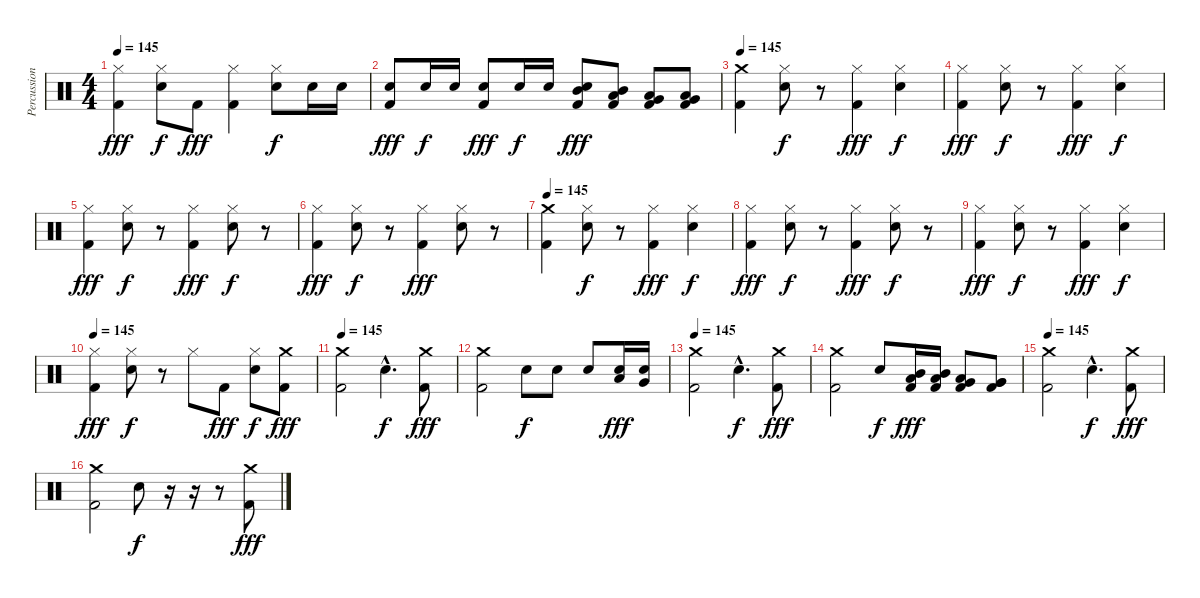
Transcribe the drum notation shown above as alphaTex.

\track ("Percussion" "Percussion") {instrument percussion}
\staff {score}
\articulation defaults
\ts (4 4)
\tempo 145
\clef neutral
\ks c
("Hi-Hat (closed)" "Kick (hit) 2").4{dy fff} ("Hi-Hat (closed)" "Snare (hit) 2").8{dy f} "Kick (hit) 2".8{dy fff} ("Hi-Hat (closed)" "Kick (hit) 2").4 ("Hi-Hat (closed)" "Snare (hit) 2").8{dy f} "Snare (hit) 2".16 "Snare (hit) 2".16 |
("Snare (hit) 2" "Kick (hit) 2").8{dy fff} "Snare (hit) 2".16{dy f} "Snare (hit) 2".16 ("Snare (hit) 2" "Kick (hit) 2").8{dy fff} "Snare (hit) 2".16{dy f} "Snare (hit) 2".16 ("Snare (hit) 2" "Mid Tom (hit)" "Kick (hit) 2").8{dy fff} ("Mid Tom (hit)" "Low Tom (hit)" "Kick (hit) 2").8 ("Low Tom (hit)" "Very Low Tom (hit)" "Kick (hit) 2").8 ("Low Tom (hit)" "Very Low Tom (hit)" "Kick (hit) 2").8 |
\tempo 145
("Crash medium (hit)" "Kick (hit) 2").4 ("Hi-Hat (closed)" "Snare (hit) 2").8{dy f} r.8 ("Hi-Hat (closed)" "Kick (hit) 2").4{dy fff} ("Hi-Hat (closed)" "Snare (hit) 2").4{dy f} |
("Hi-Hat (closed)" "Kick (hit) 2").4{dy fff} ("Hi-Hat (closed)" "Snare (hit) 2").8{dy f} r.8 ("Hi-Hat (closed)" "Kick (hit) 2").4{dy fff} ("Hi-Hat (closed)" "Snare (hit) 2").4{dy f} |
("Hi-Hat (closed)" "Kick (hit) 2").4{dy fff} ("Hi-Hat (closed)" "Snare (hit) 2").8{dy f} r.8 ("Hi-Hat (closed)" "Kick (hit) 2").4{dy fff} ("Hi-Hat (closed)" "Snare (hit) 2").8{dy f} r.8 |
("Hi-Hat (closed)" "Kick (hit) 2").4{dy fff} ("Hi-Hat (closed)" "Snare (hit) 2").8{dy f} r.8 ("Hi-Hat (closed)" "Kick (hit) 2").4{dy fff} ("Hi-Hat (closed)" "Snare (hit) 2").8 r.8 |
\tempo 145
("Crash medium (hit)" "Kick (hit) 2").4 ("Hi-Hat (closed)" "Snare (hit) 2").8{dy f} r.8 ("Hi-Hat (closed)" "Kick (hit) 2").4{dy fff} ("Hi-Hat (closed)" "Snare (hit) 2").4{dy f} |
("Hi-Hat (closed)" "Kick (hit) 2").4{dy fff} ("Hi-Hat (closed)" "Snare (hit) 2").8{dy f} r.8 ("Hi-Hat (closed)" "Kick (hit) 2").4{dy fff} ("Hi-Hat (closed)" "Snare (hit) 2").8{dy f} r.8 |
("Hi-Hat (closed)" "Kick (hit) 2").4{dy fff} ("Hi-Hat (closed)" "Snare (hit) 2").8{dy f} r.8 ("Hi-Hat (closed)" "Kick (hit) 2").4{dy fff} ("Hi-Hat (closed)" "Snare (hit) 2").4{dy f} |
\tempo 145
("Hi-Hat (closed)" "Kick (hit) 2").4{dy fff} ("Hi-Hat (closed)" "Snare (hit) 2").8{dy f} r.8 "Hi-Hat (closed)".8 "Kick (hit) 2".8{dy fff} ("Hi-Hat (closed)" "Snare (hit) 2").8{dy f} ("Crash medium (hit)" "Kick (hit) 2").8{dy fff} |
\tempo 145
("Crash medium (hit)" "Kick (hit) 2").2 "Snare (hit) 2"{hac}.4{d dy f} ("Crash medium (hit)" "Kick (hit) 2").8{dy fff} |
("Crash medium (hit)" "Kick (hit) 2").2 "Snare (hit) 2".8{dy f} "Snare (hit) 2".8 "Snare (hit) 2".8 ("Low Tom (hit)" "Snare (hit) 2").16{dy fff} ("Very Low Tom (hit)" "Snare (hit) 2").16 |
\tempo 145
("Crash medium (hit)" "Kick (hit) 2").2 "Snare (hit) 2"{hac}.4{d dy f} ("Crash medium (hit)" "Kick (hit) 2").8{dy fff} |
("Crash medium (hit)" "Kick (hit) 2").2 "Snare (hit) 2".8{dy f} ("Mid Tom (hit)" "Low Tom (hit)" "Kick (hit) 2").16{dy fff} ("Mid Tom (hit)" "Low Tom (hit)" "Kick (hit) 2").16 ("Very Low Tom (hit)" "Low Tom (hit)" "Kick (hit) 2").8 ("Very Low Tom (hit)" "Very Low Tom (hit)" "Kick (hit) 2").8 |
\tempo 145
("Crash medium (hit)" "Kick (hit) 2").2 "Snare (hit) 2"{hac}.4{d dy f} ("Crash medium (hit)" "Kick (hit) 2").8{dy fff} |
("Crash medium (hit)" "Kick (hit) 2").2 "Snare (hit) 2".8{dy f} r.16 r.16 r.8 ("Crash medium (hit)" "Kick (hit) 2").8{dy fff}
